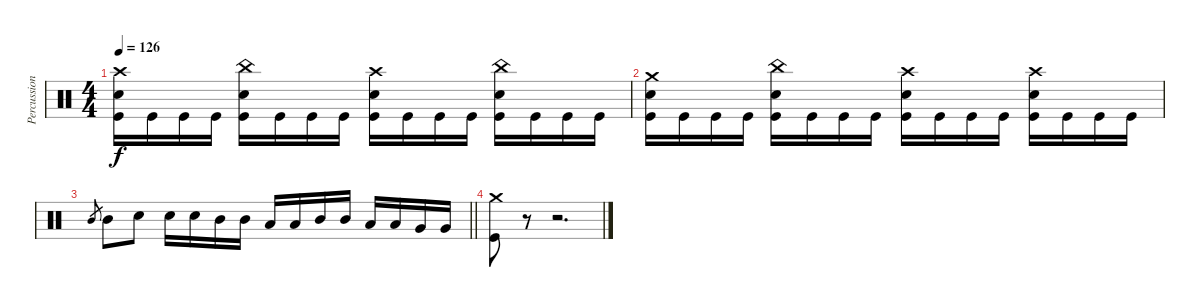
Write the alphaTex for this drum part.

\track ("Percussion" "Percussion") {instrument percussion}
\staff {score}
\articulation defaults
\ts (4 4)
\tempo 126
\clef neutral
\ks c
("Crash high (hit)" "Snare (hit) 2" "Kick (hit)").16{dy f} "Kick (hit)".16 "Kick (hit)".16 "Kick (hit)".16 ("China (hit)" "Snare (hit) 2" "Kick (hit)").16 "Kick (hit)".16 "Kick (hit)".16 "Kick (hit)".16 ("Crash high (hit)" "Snare (hit) 2" "Kick (hit)").16 "Kick (hit)".16 "Kick (hit)".16 "Kick (hit)".16 ("China (hit)" "Snare (hit) 2" "Kick (hit)").16 "Kick (hit)".16 "Kick (hit)".16 "Kick (hit)".16 |
("Crash medium (hit)" "Snare (hit) 2" "Kick (hit)").16 "Kick (hit)".16 "Kick (hit)".16 "Kick (hit)".16 ("China (hit)" "Snare (hit) 2" "Kick (hit)").16 "Kick (hit)".16 "Kick (hit)".16 "Kick (hit)".16 ("Crash high (hit)" "Snare (hit) 2" "Kick (hit)").16 "Kick (hit)".16 "Kick (hit)".16 "Kick (hit)".16 ("Crash high (hit)" "Snare (hit) 2" "Kick (hit)").16 "Kick (hit)".16 "Kick (hit)".16 "Kick (hit)".16 |
\barLineRight lightlight "Mid Tom (hit)".8{gr} "Mid Tom (hit)".8 "Snare (hit) 2".8 "Snare (hit) 2".16 "Snare (hit) 2".16 "Mid Tom (hit)".16 "Mid Tom (hit)".16 "Low Tom (hit)".16 "Low Tom (hit)".16 "Mid Tom (hit)".16 "Mid Tom (hit)".16 "Low Tom (hit)".16 "Low Tom (hit)".16 "Very Low Tom (hit)".16 "Very Low Tom (hit)".16
|
("Crash medium (hit)" "Kick (hit)").8 r.8 r.2{d}
